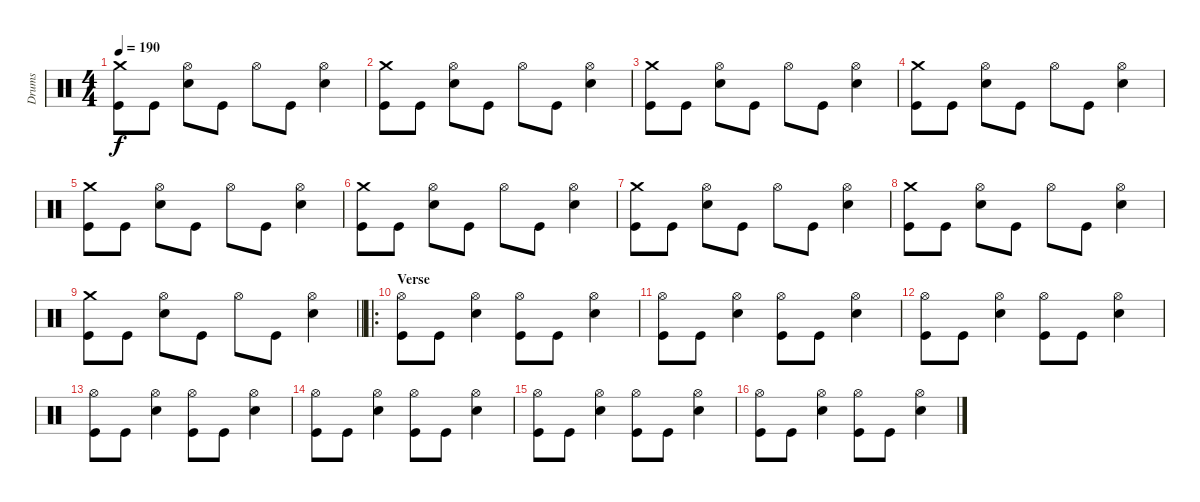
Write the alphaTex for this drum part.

\track ("Drums" "Drums") {instrument percussion}
\staff {score}
\articulation defaults
\ts (4 4)
\tempo 190
\clef neutral
\ks c
("Crash medium (hit)" "Kick (hit)").8{dy f} "Kick (hit)".8 ("Hi-Hat (open)" "Snare (hit) 2").8 "Kick (hit)".8 "Hi-Hat (open)".8 "Kick (hit)".8 ("Hi-Hat (open)" "Snare (hit) 2").4 |
("Crash medium (hit)" "Kick (hit)").8 "Kick (hit)".8 ("Hi-Hat (open)" "Snare (hit) 2").8 "Kick (hit)".8 "Hi-Hat (open)".8 "Kick (hit)".8 ("Hi-Hat (open)" "Snare (hit) 2").4 |
("Crash medium (hit)" "Kick (hit)").8 "Kick (hit)".8 ("Hi-Hat (open)" "Snare (hit) 2").8 "Kick (hit)".8 "Hi-Hat (open)".8 "Kick (hit)".8 ("Hi-Hat (open)" "Snare (hit) 2").4 |
("Crash medium (hit)" "Kick (hit)").8 "Kick (hit)".8 ("Hi-Hat (open)" "Snare (hit) 2").8 "Kick (hit)".8 "Hi-Hat (open)".8 "Kick (hit)".8 ("Hi-Hat (open)" "Snare (hit) 2").4 |
("Crash medium (hit)" "Kick (hit)").8 "Kick (hit)".8 ("Hi-Hat (open)" "Snare (hit) 2").8 "Kick (hit)".8 "Hi-Hat (open)".8 "Kick (hit)".8 ("Hi-Hat (open)" "Snare (hit) 2").4 |
("Crash medium (hit)" "Kick (hit)").8 "Kick (hit)".8 ("Hi-Hat (open)" "Snare (hit) 2").8 "Kick (hit)".8 "Hi-Hat (open)".8 "Kick (hit)".8 ("Hi-Hat (open)" "Snare (hit) 2").4 |
("Crash medium (hit)" "Kick (hit)").8 "Kick (hit)".8 ("Hi-Hat (open)" "Snare (hit) 2").8 "Kick (hit)".8 "Hi-Hat (open)".8 "Kick (hit)".8 ("Hi-Hat (open)" "Snare (hit) 2").4 |
("Crash medium (hit)" "Kick (hit)").8 "Kick (hit)".8 ("Hi-Hat (open)" "Snare (hit) 2").8 "Kick (hit)".8 "Hi-Hat (open)".8 "Kick (hit)".8 ("Hi-Hat (open)" "Snare (hit) 2").4 |
\barLineRight lightlight
("Crash medium (hit)" "Kick (hit)").8 "Kick (hit)".8 ("Hi-Hat (open)" "Snare (hit) 2").8 "Kick (hit)".8 "Hi-Hat (open)".8 "Kick (hit)".8 ("Hi-Hat (open)" "Snare (hit) 2").4 |
\ro
\section ("" "Verse")
("Hi-Hat (open)" "Kick (hit)").8 "Kick (hit)".8 ("Hi-Hat (open)" "Snare (hit) 2").4 ("Hi-Hat (open)" "Kick (hit)").8 "Kick (hit)".8 ("Hi-Hat (open)" "Snare (hit) 2").4 |
("Hi-Hat (open)" "Kick (hit)").8 "Kick (hit)".8 ("Hi-Hat (open)" "Snare (hit) 2").4 ("Hi-Hat (open)" "Kick (hit)").8 "Kick (hit)".8 ("Hi-Hat (open)" "Snare (hit) 2").4 |
("Hi-Hat (open)" "Kick (hit)").8 "Kick (hit)".8 ("Hi-Hat (open)" "Snare (hit) 2").4 ("Hi-Hat (open)" "Kick (hit)").8 "Kick (hit)".8 ("Hi-Hat (open)" "Snare (hit) 2").4 |
("Hi-Hat (open)" "Kick (hit)").8 "Kick (hit)".8 ("Hi-Hat (open)" "Snare (hit) 2").4 ("Hi-Hat (open)" "Kick (hit)").8 "Kick (hit)".8 ("Hi-Hat (open)" "Snare (hit) 2").4 |
("Hi-Hat (open)" "Kick (hit)").8 "Kick (hit)".8 ("Hi-Hat (open)" "Snare (hit) 2").4 ("Hi-Hat (open)" "Kick (hit)").8 "Kick (hit)".8 ("Hi-Hat (open)" "Snare (hit) 2").4 |
("Hi-Hat (open)" "Kick (hit)").8 "Kick (hit)".8 ("Hi-Hat (open)" "Snare (hit) 2").4 ("Hi-Hat (open)" "Kick (hit)").8 "Kick (hit)".8 ("Hi-Hat (open)" "Snare (hit) 2").4 |
("Hi-Hat (open)" "Kick (hit)").8 "Kick (hit)".8 ("Hi-Hat (open)" "Snare (hit) 2").4 ("Hi-Hat (open)" "Kick (hit)").8 "Kick (hit)".8 ("Hi-Hat (open)" "Snare (hit) 2").4
